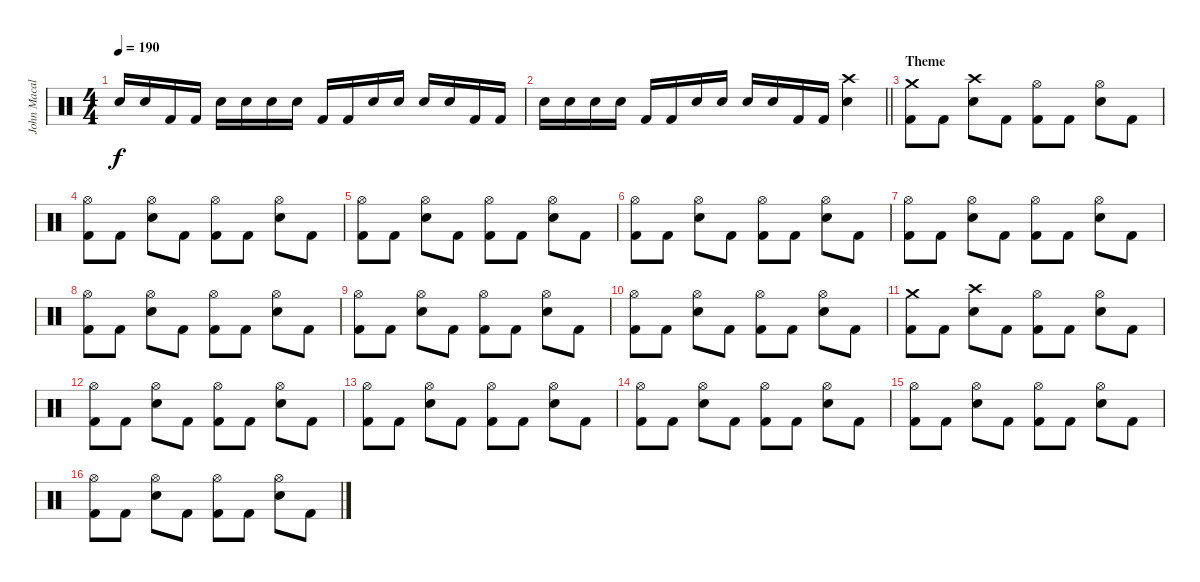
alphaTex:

\track ("John Macaluso" "John Macal") {instrument percussion}
\staff {score}
\articulation defaults
\ts (4 4)
\tempo 190
\clef neutral
\ks c "Snare (hit) 2".16{dy f} "Snare (hit) 2".16 "Kick (hit) 2".16 "Kick (hit) 2".16 "Snare (hit) 2".16 "Snare (hit) 2".16 "Snare (hit) 2".16 "Snare (hit) 2".16 "Kick (hit) 2".16 "Kick (hit) 2".16 "Snare (hit) 2".16 "Snare (hit) 2".16 "Snare (hit) 2".16 "Snare (hit) 2".16 "Kick (hit) 2".16 "Kick (hit) 2".16
|
\barLineRight lightlight "Snare (hit) 2".16 "Snare (hit) 2".16 "Snare (hit) 2".16 "Snare (hit) 2".16 "Kick (hit) 2".16 "Kick (hit) 2".16 "Snare (hit) 2".16 "Snare (hit) 2".16 "Snare (hit) 2".16 "Snare (hit) 2".16 "Kick (hit) 2".16 "Kick (hit) 2".16
("Crash high (hit)" "Snare (hit) 2").4 |
\section ("" "Theme")
("Crash medium (hit)" "Kick (hit) 2").8 "Kick (hit) 2".8 ("Crash high (hit)" "Snare (hit) 2").8 "Kick (hit) 2".8 ("Hi-Hat (open)" "Kick (hit) 2").8 "Kick (hit) 2".8 ("Hi-Hat (open)" "Snare (hit) 2").8 "Kick (hit) 2".8 |
("Hi-Hat (open)" "Kick (hit) 2").8 "Kick (hit) 2".8 ("Hi-Hat (open)" "Snare (hit) 2").8 "Kick (hit) 2".8 ("Hi-Hat (open)" "Kick (hit) 2").8 "Kick (hit) 2".8 ("Hi-Hat (open)" "Snare (hit) 2").8 "Kick (hit) 2".8 |
("Hi-Hat (open)" "Kick (hit) 2").8 "Kick (hit) 2".8 ("Hi-Hat (open)" "Snare (hit) 2").8 "Kick (hit) 2".8 ("Hi-Hat (open)" "Kick (hit) 2").8 "Kick (hit) 2".8 ("Hi-Hat (open)" "Snare (hit) 2").8 "Kick (hit) 2".8 |
("Hi-Hat (open)" "Kick (hit) 2").8 "Kick (hit) 2".8 ("Hi-Hat (open)" "Snare (hit) 2").8 "Kick (hit) 2".8 ("Hi-Hat (open)" "Kick (hit) 2").8 "Kick (hit) 2".8 ("Hi-Hat (open)" "Snare (hit) 2").8 "Kick (hit) 2".8 |
("Hi-Hat (open)" "Kick (hit) 2").8 "Kick (hit) 2".8 ("Hi-Hat (open)" "Snare (hit) 2").8 "Kick (hit) 2".8 ("Hi-Hat (open)" "Kick (hit) 2").8 "Kick (hit) 2".8 ("Hi-Hat (open)" "Snare (hit) 2").8 "Kick (hit) 2".8 |
("Hi-Hat (open)" "Kick (hit) 2").8 "Kick (hit) 2".8 ("Hi-Hat (open)" "Snare (hit) 2").8 "Kick (hit) 2".8 ("Hi-Hat (open)" "Kick (hit) 2").8 "Kick (hit) 2".8 ("Hi-Hat (open)" "Snare (hit) 2").8 "Kick (hit) 2".8 |
("Hi-Hat (open)" "Kick (hit) 2").8 "Kick (hit) 2".8 ("Hi-Hat (open)" "Snare (hit) 2").8 "Kick (hit) 2".8 ("Hi-Hat (open)" "Kick (hit) 2").8 "Kick (hit) 2".8 ("Hi-Hat (open)" "Snare (hit) 2").8 "Kick (hit) 2".8 |
("Hi-Hat (open)" "Kick (hit) 2").8 "Kick (hit) 2".8 ("Hi-Hat (open)" "Snare (hit) 2").8 "Kick (hit) 2".8 ("Hi-Hat (open)" "Kick (hit) 2").8 "Kick (hit) 2".8 ("Hi-Hat (open)" "Snare (hit) 2").8 "Kick (hit) 2".8 |
("Crash medium (hit)" "Kick (hit) 2").8 "Kick (hit) 2".8 ("Crash high (hit)" "Snare (hit) 2").8 "Kick (hit) 2".8 ("Hi-Hat (open)" "Kick (hit) 2").8 "Kick (hit) 2".8 ("Hi-Hat (open)" "Snare (hit) 2").8 "Kick (hit) 2".8 |
("Hi-Hat (open)" "Kick (hit) 2").8 "Kick (hit) 2".8 ("Hi-Hat (open)" "Snare (hit) 2").8 "Kick (hit) 2".8 ("Hi-Hat (open)" "Kick (hit) 2").8 "Kick (hit) 2".8 ("Hi-Hat (open)" "Snare (hit) 2").8 "Kick (hit) 2".8 |
("Hi-Hat (open)" "Kick (hit) 2").8 "Kick (hit) 2".8 ("Hi-Hat (open)" "Snare (hit) 2").8 "Kick (hit) 2".8 ("Hi-Hat (open)" "Kick (hit) 2").8 "Kick (hit) 2".8 ("Hi-Hat (open)" "Snare (hit) 2").8 "Kick (hit) 2".8 |
("Hi-Hat (open)" "Kick (hit) 2").8 "Kick (hit) 2".8 ("Hi-Hat (open)" "Snare (hit) 2").8 "Kick (hit) 2".8 ("Hi-Hat (open)" "Kick (hit) 2").8 "Kick (hit) 2".8 ("Hi-Hat (open)" "Snare (hit) 2").8 "Kick (hit) 2".8 |
("Hi-Hat (open)" "Kick (hit) 2").8 "Kick (hit) 2".8 ("Hi-Hat (open)" "Snare (hit) 2").8 "Kick (hit) 2".8 ("Hi-Hat (open)" "Kick (hit) 2").8 "Kick (hit) 2".8 ("Hi-Hat (open)" "Snare (hit) 2").8 "Kick (hit) 2".8 |
("Hi-Hat (open)" "Kick (hit) 2").8 "Kick (hit) 2".8 ("Hi-Hat (open)" "Snare (hit) 2").8 "Kick (hit) 2".8 ("Hi-Hat (open)" "Kick (hit) 2").8 "Kick (hit) 2".8 ("Hi-Hat (open)" "Snare (hit) 2").8 "Kick (hit) 2".8
